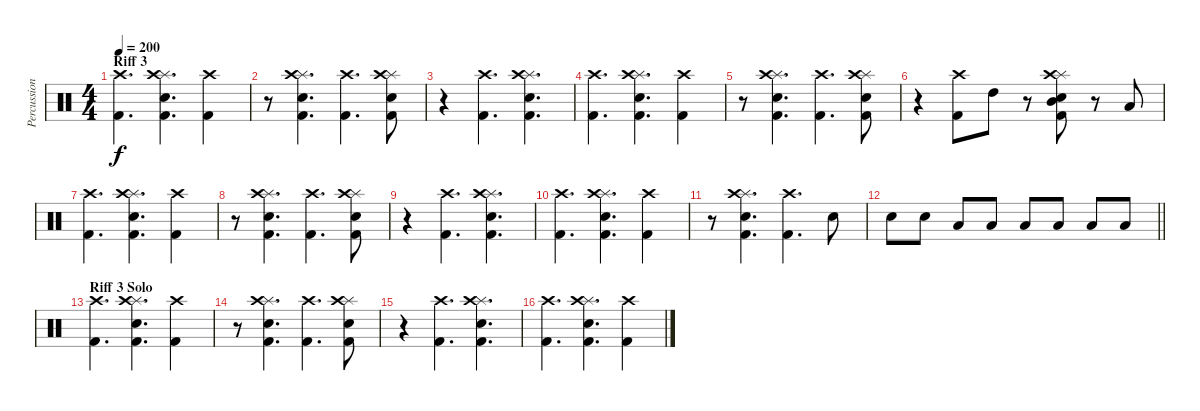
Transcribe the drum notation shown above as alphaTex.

\track ("Percussion" "Percussion") {instrument percussion}
\staff {score}
\articulation defaults
\ts (4 4)
\section ("" "Riff 3")
\tempo 200
\clef neutral
\ks c
("Crash high (hit)" "Kick (hit) 2").4{d dy f} ("Splash (hit)" "Crash high (hit)" "Electric Snare (hit)" "Kick (hit) 2").4{d} ("Crash high (hit)" "Kick (hit) 2").4 |
r.8 ("Splash (hit)" "Crash high (hit)" "Electric Snare (hit)" "Kick (hit) 2").4{d} ("Crash high (hit)" "Kick (hit) 2").4{d} ("Splash (hit)" "Crash high (hit)" "Electric Snare (hit)" "Kick (hit) 2").8 |
r.4 ("Crash high (hit)" "Kick (hit) 2").4{d} ("Splash (hit)" "Crash high (hit)" "Electric Snare (hit)" "Kick (hit) 2").4{d} |
("Crash high (hit)" "Kick (hit) 2").4{d} ("Splash (hit)" "Crash high (hit)" "Electric Snare (hit)" "Kick (hit) 2").4{d} ("Crash high (hit)" "Kick (hit) 2").4 |
r.8 ("Splash (hit)" "Crash high (hit)" "Electric Snare (hit)" "Kick (hit) 2").4{d} ("Crash high (hit)" "Kick (hit) 2").4{d} ("Splash (hit)" "Crash high (hit)" "Electric Snare (hit)" "Kick (hit) 2").8 |
r.4 ("Crash high (hit)" "Kick (hit) 2").8 "High Tom (hit)".8 r.8 ("Splash (hit)" "Mid Tom (hit)" "Crash high (hit)" "Electric Snare (hit)" "Kick (hit) 2").8 r.8 "Low Tom (hit)".8 |
("Crash high (hit)" "Kick (hit) 2").4{d} ("Splash (hit)" "Crash high (hit)" "Electric Snare (hit)" "Kick (hit) 2").4{d} ("Crash high (hit)" "Kick (hit) 2").4 |
r.8 ("Splash (hit)" "Crash high (hit)" "Electric Snare (hit)" "Kick (hit) 2").4{d} ("Crash high (hit)" "Kick (hit) 2").4{d} ("Splash (hit)" "Crash high (hit)" "Electric Snare (hit)" "Kick (hit) 2").8 |
r.4 ("Crash high (hit)" "Kick (hit) 2").4{d} ("Splash (hit)" "Crash high (hit)" "Electric Snare (hit)" "Kick (hit) 2").4{d} |
("Crash high (hit)" "Kick (hit) 2").4{d} ("Splash (hit)" "Crash high (hit)" "Electric Snare (hit)" "Kick (hit) 2").4{d} ("Crash high (hit)" "Kick (hit) 2").4 |
r.8 ("Splash (hit)" "Crash high (hit)" "Electric Snare (hit)" "Kick (hit) 2").4{d} ("Crash high (hit)" "Kick (hit) 2").4{d} "Snare (hit) 2".8 |
\barLineRight lightlight "Snare (hit) 2".8 "Snare (hit) 2".8 "Low Tom (hit)".8 "Low Tom (hit)".8 "Low Tom (hit)".8 "Low Floor Tom (hit)".8 "Low Floor Tom (hit)".8 "Low Floor Tom (hit)".8
|
\section ("" "Riff 3 Solo")
("Crash high (hit)" "Kick (hit) 2").4{d} ("Splash (hit)" "Crash high (hit)" "Electric Snare (hit)" "Kick (hit) 2").4{d} ("Crash high (hit)" "Kick (hit) 2").4 |
r.8 ("Splash (hit)" "Crash high (hit)" "Electric Snare (hit)" "Kick (hit) 2").4{d} ("Crash high (hit)" "Kick (hit) 2").4{d} ("Splash (hit)" "Crash high (hit)" "Electric Snare (hit)" "Kick (hit) 2").8 |
r.4 ("Crash high (hit)" "Kick (hit) 2").4{d} ("Splash (hit)" "Crash high (hit)" "Electric Snare (hit)" "Kick (hit) 2").4{d} |
("Crash high (hit)" "Kick (hit) 2").4{d} ("Splash (hit)" "Crash high (hit)" "Electric Snare (hit)" "Kick (hit) 2").4{d} ("Crash high (hit)" "Kick (hit) 2").4
